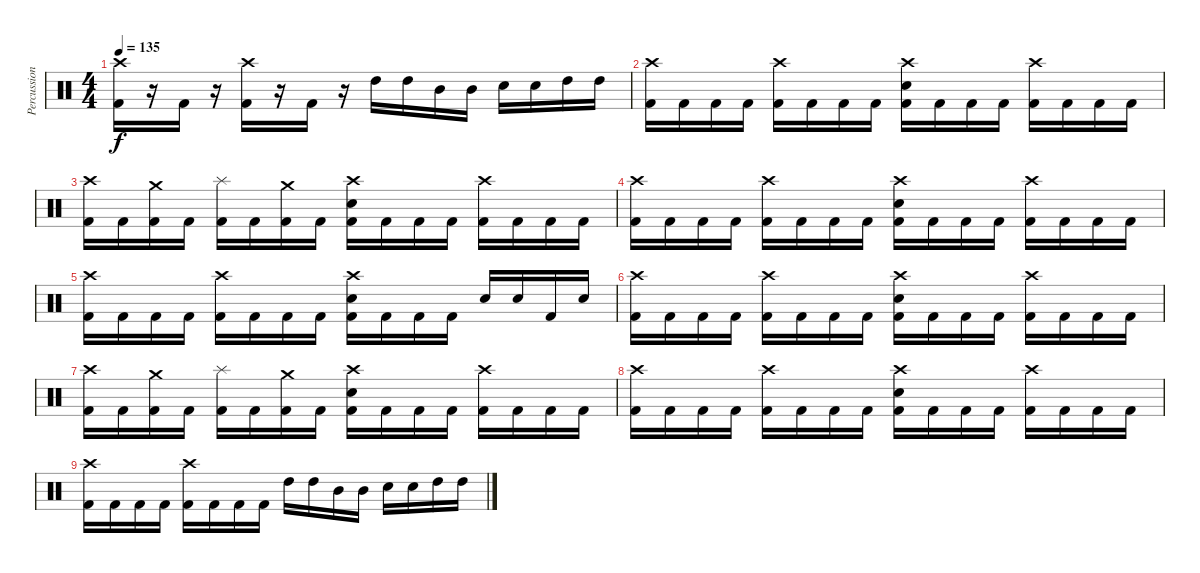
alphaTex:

\track ("Percussion" "Percussion") {instrument percussion}
\staff {score}
\articulation defaults
\ts (4 4)
\tempo 135
\clef neutral
\ks c
("Crash high (hit)" "Kick (hit) 2").16{dy f} r.16 "Kick (hit) 2".16 r.16 ("Crash high (hit)" "Kick (hit) 2").16 r.16 "Kick (hit) 2".16 r.16 "High Tom (hit)".16 "High Tom (hit)".16 "Mid Tom (hit)".16 "Mid Tom (hit)".16 "Electric Snare (hit)".16 "Electric Snare (hit)".16 "High Tom (hit)".16 "High Tom (hit)".16 |
("Crash high (hit)" "Kick (hit) 2").16{volume 8} "Kick (hit) 2".16 "Kick (hit) 2".16 "Kick (hit) 2".16 ("Crash high (hit)" "Kick (hit) 2").16 "Kick (hit) 2".16 "Kick (hit) 2".16 "Kick (hit) 2".16 ("Crash high (hit)" "Electric Snare (hit)" "Kick (hit) 2").16 "Kick (hit) 2".16 "Kick (hit) 2".16 "Kick (hit) 2".16 ("Crash high (hit)" "Kick (hit) 2").16 "Kick (hit) 2".16 "Kick (hit) 2".16 "Kick (hit) 2".16 |
("Crash high (hit)" "Kick (hit) 2").16 "Kick (hit) 2".16 ("Crash medium (hit)" "Kick (hit) 2").16 "Kick (hit) 2".16 ("Splash (hit)" "Kick (hit) 2").16 "Kick (hit) 2".16 ("Crash medium (hit)" "Kick (hit) 2").16 "Kick (hit) 2".16 ("Crash high (hit)" "Electric Snare (hit)" "Kick (hit) 2").16 "Kick (hit) 2".16 "Kick (hit) 2".16 "Kick (hit) 2".16 ("Crash high (hit)" "Kick (hit) 2").16 "Kick (hit) 2".16 "Kick (hit) 2".16 "Kick (hit) 2".16 |
("Crash high (hit)" "Kick (hit) 2").16 "Kick (hit) 2".16 "Kick (hit) 2".16 "Kick (hit) 2".16 ("Crash high (hit)" "Kick (hit) 2").16 "Kick (hit) 2".16 "Kick (hit) 2".16 "Kick (hit) 2".16 ("Crash high (hit)" "Electric Snare (hit)" "Kick (hit) 2").16 "Kick (hit) 2".16 "Kick (hit) 2".16 "Kick (hit) 2".16 ("Crash high (hit)" "Kick (hit) 2").16 "Kick (hit) 2".16 "Kick (hit) 2".16 "Kick (hit) 2".16 |
("Crash high (hit)" "Kick (hit) 2").16 "Kick (hit) 2".16 "Kick (hit) 2".16 "Kick (hit) 2".16 ("Crash high (hit)" "Kick (hit) 2").16 "Kick (hit) 2".16 "Kick (hit) 2".16 "Kick (hit) 2".16 ("Crash high (hit)" "Electric Snare (hit)" "Kick (hit) 2").16 "Kick (hit) 2".16 "Kick (hit) 2".16 "Kick (hit) 2".16 "Electric Snare (hit)".16 "Electric Snare (hit)".16 "Kick (hit) 2".16 "Electric Snare (hit)".16 |
("Crash high (hit)" "Kick (hit) 2").16{volume 0} "Kick (hit) 2".16 "Kick (hit) 2".16 "Kick (hit) 2".16 ("Crash high (hit)" "Kick (hit) 2").16 "Kick (hit) 2".16 "Kick (hit) 2".16 "Kick (hit) 2".16 ("Crash high (hit)" "Electric Snare (hit)" "Kick (hit) 2").16 "Kick (hit) 2".16 "Kick (hit) 2".16 "Kick (hit) 2".16 ("Crash high (hit)" "Kick (hit) 2").16 "Kick (hit) 2".16 "Kick (hit) 2".16 "Kick (hit) 2".16 |
("Crash high (hit)" "Kick (hit) 2").16 "Kick (hit) 2".16 ("Crash medium (hit)" "Kick (hit) 2").16 "Kick (hit) 2".16 ("Splash (hit)" "Kick (hit) 2").16 "Kick (hit) 2".16 ("Crash medium (hit)" "Kick (hit) 2").16 "Kick (hit) 2".16 ("Crash high (hit)" "Electric Snare (hit)" "Kick (hit) 2").16 "Kick (hit) 2".16 "Kick (hit) 2".16 "Kick (hit) 2".16 ("Crash high (hit)" "Kick (hit) 2").16 "Kick (hit) 2".16 "Kick (hit) 2".16 "Kick (hit) 2".16 |
("Crash high (hit)" "Kick (hit) 2").16 "Kick (hit) 2".16 "Kick (hit) 2".16 "Kick (hit) 2".16 ("Crash high (hit)" "Kick (hit) 2").16 "Kick (hit) 2".16 "Kick (hit) 2".16 "Kick (hit) 2".16 ("Crash high (hit)" "Electric Snare (hit)" "Kick (hit) 2").16 "Kick (hit) 2".16 "Kick (hit) 2".16 "Kick (hit) 2".16 ("Crash high (hit)" "Kick (hit) 2").16 "Kick (hit) 2".16 "Kick (hit) 2".16 "Kick (hit) 2".16 |
("Crash high (hit)" "Kick (hit) 2").16 "Kick (hit) 2".16 "Kick (hit) 2".16 "Kick (hit) 2".16 ("Crash high (hit)" "Kick (hit) 2").16 "Kick (hit) 2".16 "Kick (hit) 2".16 "Kick (hit) 2".16 "High Tom (hit)".16 "High Tom (hit)".16 "Mid Tom (hit)".16 "Mid Tom (hit)".16 "Electric Snare (hit)".16 "Electric Snare (hit)".16 "High Tom (hit)".16 "High Tom (hit)".16
